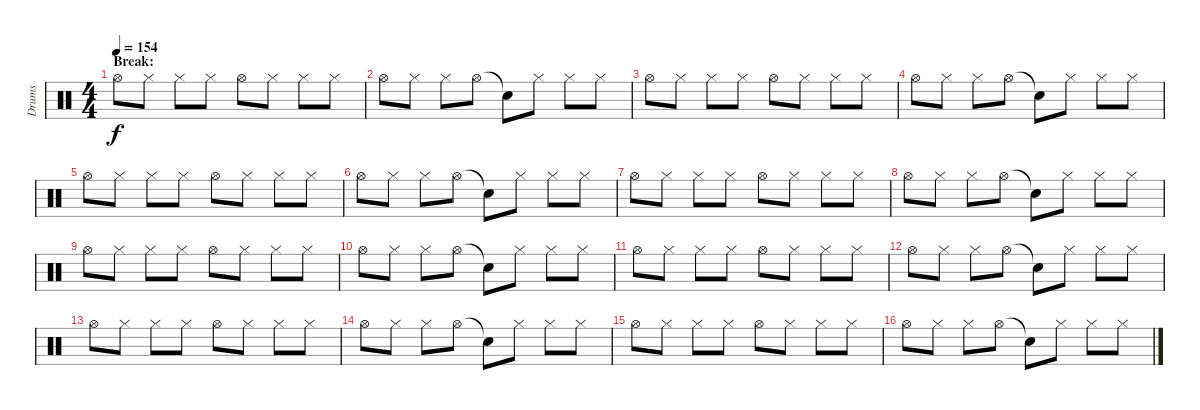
\track ("Drums" "Drums") {instrument percussion}
\staff {score}
\articulation defaults
\ts (4 4)
\section ("" "Break:")
\tempo 154
\clef neutral
\ks c "Hi-Hat (open)".8{dy f} "Hi-Hat (closed)".8 "Hi-Hat (closed)".8 "Hi-Hat (closed)".8 "Hi-Hat (open)".8 "Hi-Hat (closed)".8 "Hi-Hat (closed)".8 "Hi-Hat (closed)".8
|
"Hi-Hat (open)".8 "Hi-Hat (closed)".8 "Hi-Hat (closed)".8 "Hi-Hat (open)".8 "Snare (hit)"{t}.8 "Hi-Hat (closed)".8 "Hi-Hat (closed)".8 "Hi-Hat (closed)".8 |
"Hi-Hat (open)".8 "Hi-Hat (closed)".8 "Hi-Hat (closed)".8 "Hi-Hat (closed)".8 "Hi-Hat (open)".8 "Hi-Hat (closed)".8 "Hi-Hat (closed)".8 "Hi-Hat (closed)".8 |
"Hi-Hat (open)".8 "Hi-Hat (closed)".8 "Hi-Hat (closed)".8 "Hi-Hat (open)".8 "Snare (hit)"{t}.8 "Hi-Hat (closed)".8 "Hi-Hat (closed)".8 "Hi-Hat (closed)".8 |
"Hi-Hat (open)".8 "Hi-Hat (closed)".8 "Hi-Hat (closed)".8 "Hi-Hat (closed)".8 "Hi-Hat (open)".8 "Hi-Hat (closed)".8 "Hi-Hat (closed)".8 "Hi-Hat (closed)".8 |
"Hi-Hat (open)".8 "Hi-Hat (closed)".8 "Hi-Hat (closed)".8 "Hi-Hat (open)".8 "Snare (hit)"{t}.8 "Hi-Hat (closed)".8 "Hi-Hat (closed)".8 "Hi-Hat (closed)".8 |
"Hi-Hat (open)".8 "Hi-Hat (closed)".8 "Hi-Hat (closed)".8 "Hi-Hat (closed)".8 "Hi-Hat (open)".8 "Hi-Hat (closed)".8 "Hi-Hat (closed)".8 "Hi-Hat (closed)".8 |
"Hi-Hat (open)".8 "Hi-Hat (closed)".8 "Hi-Hat (closed)".8 "Hi-Hat (open)".8 "Snare (hit)"{t}.8 "Hi-Hat (closed)".8 "Hi-Hat (closed)".8 "Hi-Hat (closed)".8 |
"Hi-Hat (open)".8 "Hi-Hat (closed)".8 "Hi-Hat (closed)".8 "Hi-Hat (closed)".8 "Hi-Hat (open)".8 "Hi-Hat (closed)".8 "Hi-Hat (closed)".8 "Hi-Hat (closed)".8 |
"Hi-Hat (open)".8 "Hi-Hat (closed)".8 "Hi-Hat (closed)".8 "Hi-Hat (open)".8 "Snare (hit)"{t}.8 "Hi-Hat (closed)".8 "Hi-Hat (closed)".8 "Hi-Hat (closed)".8 |
"Hi-Hat (open)".8 "Hi-Hat (closed)".8 "Hi-Hat (closed)".8 "Hi-Hat (closed)".8 "Hi-Hat (open)".8 "Hi-Hat (closed)".8 "Hi-Hat (closed)".8 "Hi-Hat (closed)".8 |
"Hi-Hat (open)".8 "Hi-Hat (closed)".8 "Hi-Hat (closed)".8 "Hi-Hat (open)".8 "Snare (hit)"{t}.8 "Hi-Hat (closed)".8 "Hi-Hat (closed)".8 "Hi-Hat (closed)".8 |
"Hi-Hat (open)".8 "Hi-Hat (closed)".8 "Hi-Hat (closed)".8 "Hi-Hat (closed)".8 "Hi-Hat (open)".8 "Hi-Hat (closed)".8 "Hi-Hat (closed)".8 "Hi-Hat (closed)".8 |
"Hi-Hat (open)".8 "Hi-Hat (closed)".8 "Hi-Hat (closed)".8 "Hi-Hat (open)".8 "Snare (hit)"{t}.8 "Hi-Hat (closed)".8 "Hi-Hat (closed)".8 "Hi-Hat (closed)".8 |
"Hi-Hat (open)".8 "Hi-Hat (closed)".8 "Hi-Hat (closed)".8 "Hi-Hat (closed)".8 "Hi-Hat (open)".8 "Hi-Hat (closed)".8 "Hi-Hat (closed)".8 "Hi-Hat (closed)".8 |
"Hi-Hat (open)".8 "Hi-Hat (closed)".8 "Hi-Hat (closed)".8 "Hi-Hat (open)".8 "Snare (hit)"{t}.8 "Hi-Hat (closed)".8 "Hi-Hat (closed)".8 "Hi-Hat (closed)".8
